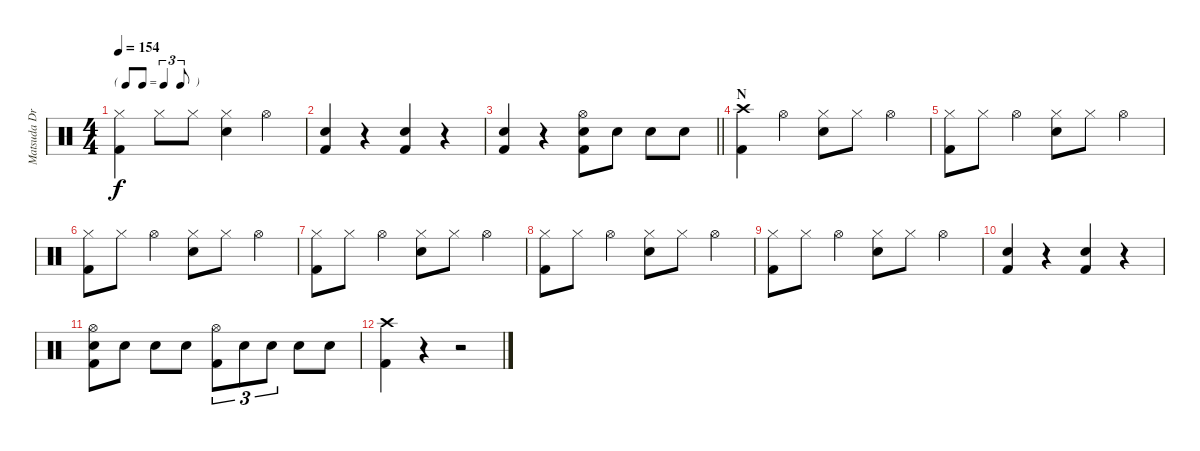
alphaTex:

\track ("Matsuda Drums" "Matsuda Dr") {instrument percussion}
\staff {score}
\articulation defaults
\ts (4 4)
\tf triplet8th
\tempo 154
\clef neutral
\ks c
("Hi-Hat (closed)" "Kick (hit) 2").4{dy f} "Hi-Hat (closed)".8 "Hi-Hat (closed)".8 ("Hi-Hat (closed)" "Snare (hit) 2").4 "Hi-Hat (open)".4 |
("Snare (hit) 2" "Kick (hit) 2").4 r.4 ("Snare (hit) 2" "Kick (hit) 2").4 r.4 |
\barLineRight lightlight
("Snare (hit) 2" "Kick (hit) 2").4 r.4 ("Hi-Hat (open)" "Snare (hit) 2" "Kick (hit) 2").8 "Snare (hit) 2".8 "Snare (hit) 2".8 "Snare (hit) 2".8 |
\section ("" "N")
("Crash high (hit)" "Kick (hit) 2").4 "Hi-Hat (open)".4 ("Hi-Hat (closed)" "Snare (hit) 2").8 "Hi-Hat (closed)".8 "Hi-Hat (open)".4 |
("Hi-Hat (closed)" "Kick (hit) 2").8 "Hi-Hat (closed)".8 "Hi-Hat (open)".4 ("Hi-Hat (closed)" "Snare (hit) 2").8 "Hi-Hat (closed)".8 "Hi-Hat (open)".4 |
("Hi-Hat (closed)" "Kick (hit) 2").8 "Hi-Hat (closed)".8 "Hi-Hat (open)".4 ("Hi-Hat (closed)" "Snare (hit) 2").8 "Hi-Hat (closed)".8 "Hi-Hat (open)".4 |
("Hi-Hat (closed)" "Kick (hit) 2").8 "Hi-Hat (closed)".8 "Hi-Hat (open)".4 ("Hi-Hat (closed)" "Snare (hit) 2").8 "Hi-Hat (closed)".8 "Hi-Hat (open)".4 |
("Hi-Hat (closed)" "Kick (hit) 2").8 "Hi-Hat (closed)".8 "Hi-Hat (open)".4 ("Hi-Hat (closed)" "Snare (hit) 2").8 "Hi-Hat (closed)".8 "Hi-Hat (open)".4 |
("Hi-Hat (closed)" "Kick (hit) 2").8 "Hi-Hat (closed)".8 "Hi-Hat (open)".4 ("Hi-Hat (closed)" "Snare (hit) 2").8 "Hi-Hat (closed)".8 "Hi-Hat (open)".4 |
("Snare (hit) 2" "Kick (hit) 2").4 r.4 ("Snare (hit) 2" "Kick (hit) 2").4 r.4 |
("Hi-Hat (open)" "Snare (hit) 2" "Kick (hit) 2").8 "Snare (hit) 2".8 "Snare (hit) 2".8 "Snare (hit) 2".8 ("Hi-Hat (open)" "Kick (hit) 2").8{tu (3 2)} "Snare (hit) 2".8{tu (3 2)} "Snare (hit) 2".8{tu (3 2)} "Snare (hit) 2".8 "Snare (hit) 2".8 |
("Crash high (hit)" "Kick (hit) 2").4 r.4 r.2
